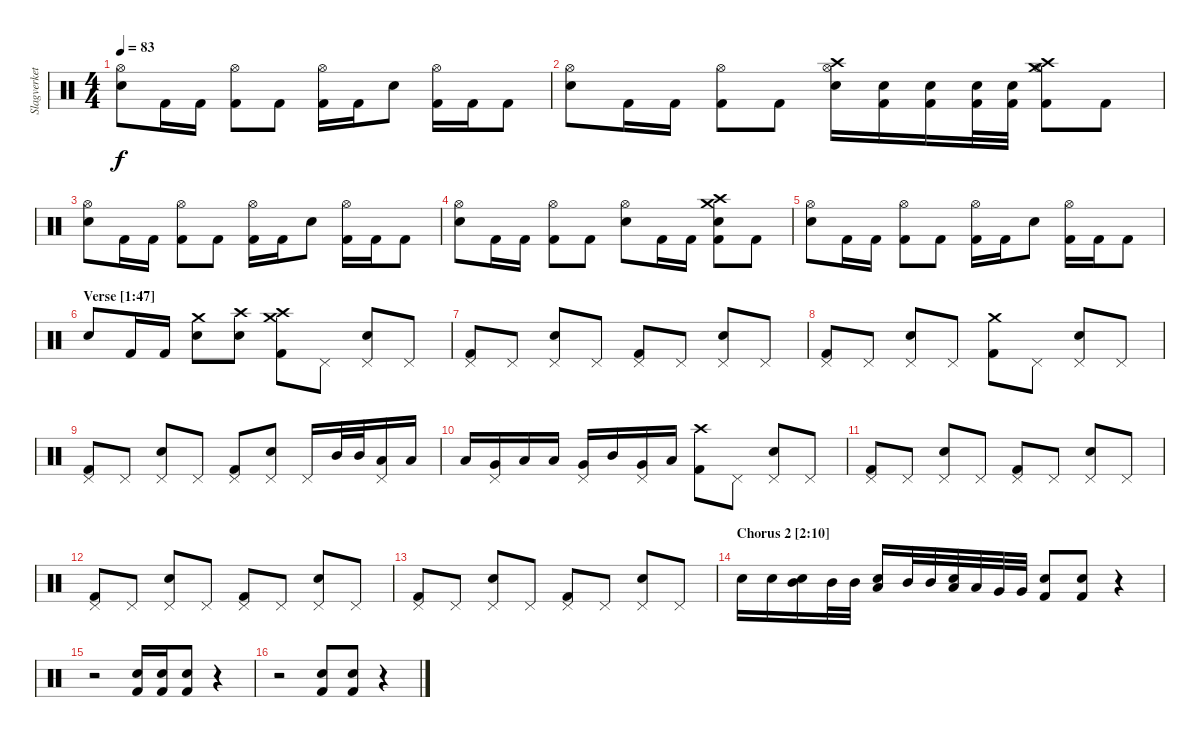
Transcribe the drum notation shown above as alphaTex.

\track ("Slagverket!" "Slagverket") {instrument percussion}
\staff {score}
\articulation defaults
\ts (4 4)
\tempo 83
\clef neutral
\ks c
("Hi-Hat (open)" "Snare (hit) 2").8{dy f} "Kick (hit) 2".16 "Kick (hit) 2".16 ("Hi-Hat (open)" "Kick (hit) 2").8 "Kick (hit) 2".8 ("Hi-Hat (open)" "Kick (hit) 2").16 "Kick (hit) 2".16 "Snare (hit) 2".8 ("Hi-Hat (open)" "Kick (hit) 2").16 "Kick (hit) 2".16 "Kick (hit) 2".8 |
("Hi-Hat (open)" "Snare (hit) 2").8 "Kick (hit) 2".16 "Kick (hit) 2".16 ("Hi-Hat (open)" "Kick (hit) 2").8 "Kick (hit) 2".8 ("Hi-Hat (open)" "Crash high (hit)" "Snare (hit) 2").16 ("Snare (hit) 2" "Kick (hit) 2").16 ("Snare (hit) 2" "Kick (hit) 2").16 ("Snare (hit) 2" "Kick (hit) 2").32 ("Snare (hit) 2" "Kick (hit) 2").32 ("Crash high (hit)" "Crash medium (hit)" "Hi-Hat (open)" "Kick (hit) 2").8 "Kick (hit) 2".8 |
("Hi-Hat (open)" "Snare (hit) 2").8 "Kick (hit) 2".16 "Kick (hit) 2".16 ("Hi-Hat (open)" "Kick (hit) 2").8 "Kick (hit) 2".8 ("Hi-Hat (open)" "Kick (hit) 2").16 "Kick (hit) 2".16 "Snare (hit) 2".8 ("Hi-Hat (open)" "Kick (hit) 2").16 "Kick (hit) 2".16 "Kick (hit) 2".8 |
("Hi-Hat (open)" "Snare (hit) 2").8 "Kick (hit) 2".16 "Kick (hit) 2".16 ("Hi-Hat (open)" "Kick (hit) 2").8 "Kick (hit) 2".8 ("Hi-Hat (open)" "Snare (hit) 2").8 "Kick (hit) 2".16 "Kick (hit) 2".16 ("Crash high (hit)" "Crash medium (hit)" "Snare (hit) 2" "Kick (hit) 2").8 "Kick (hit) 2".8 |
("Hi-Hat (open)" "Snare (hit) 2").8 "Kick (hit) 2".16 "Kick (hit) 2".16 ("Hi-Hat (open)" "Kick (hit) 2").8 "Kick (hit) 2".8 ("Hi-Hat (open)" "Kick (hit) 2").16 "Kick (hit) 2".16 "Snare (hit) 2".8 ("Hi-Hat (open)" "Kick (hit) 2").16 "Kick (hit) 2".16 "Kick (hit) 2".8 |
\section ("" "Verse [1:47]")
"Snare (hit) 2".8 "Kick (hit) 2".16 "Kick (hit) 2".16 ("Crash medium (hit)" "Snare (hit) 2").8 ("Crash high (hit)" "Snare (hit) 2").8 ("Crash high (hit)" "Crash medium (hit)" "Kick (hit) 2").8 "Pedal Hi-Hat (hit)".8 ("Pedal Hi-Hat (hit)" "Snare (hit) 2").8 "Pedal Hi-Hat (hit)".8 |
("Pedal Hi-Hat (hit)" "Kick (hit) 2").8 "Pedal Hi-Hat (hit)".8 ("Pedal Hi-Hat (hit)" "Snare (hit) 2").8 "Pedal Hi-Hat (hit)".8 ("Pedal Hi-Hat (hit)" "Kick (hit) 2").8 "Pedal Hi-Hat (hit)".8 ("Pedal Hi-Hat (hit)" "Snare (hit) 2").8 "Pedal Hi-Hat (hit)".8 |
("Pedal Hi-Hat (hit)" "Kick (hit) 2").8 "Pedal Hi-Hat (hit)".8 ("Pedal Hi-Hat (hit)" "Snare (hit) 2").8 "Pedal Hi-Hat (hit)".8 ("Crash medium (hit)" "Kick (hit) 2").8 "Pedal Hi-Hat (hit)".8 ("Pedal Hi-Hat (hit)" "Snare (hit) 2").8 "Pedal Hi-Hat (hit)".8 |
("Pedal Hi-Hat (hit)" "Kick (hit) 2").8 "Pedal Hi-Hat (hit)".8 ("Pedal Hi-Hat (hit)" "Snare (hit) 2").8 "Pedal Hi-Hat (hit)".8 ("Pedal Hi-Hat (hit)" "Kick (hit) 2").8 ("Pedal Hi-Hat (hit)" "Snare (hit) 2").8 "Pedal Hi-Hat (hit)".16 "Mid Tom (hit)".32 "Mid Tom (hit)".32 ("Pedal Hi-Hat (hit)" "Low Tom (hit)").16 "Low Tom (hit)".16 |
"Low Tom (hit)".16 ("Pedal Hi-Hat (hit)" "Very Low Tom (hit)").16 "Low Tom (hit)".16 "Low Floor Tom (hit)".16 ("Pedal Hi-Hat (hit)" "Very Low Tom (hit)").16 "Mid Tom (hit)".16 ("Pedal Hi-Hat (hit)" "Very Low Tom (hit)").16 "Low Floor Tom (hit)".16 ("Crash high (hit)" "Kick (hit) 2").8 "Pedal Hi-Hat (hit)".8 ("Pedal Hi-Hat (hit)" "Snare (hit) 2").8 "Pedal Hi-Hat (hit)".8 |
("Pedal Hi-Hat (hit)" "Kick (hit) 2").8 "Pedal Hi-Hat (hit)".8 ("Pedal Hi-Hat (hit)" "Snare (hit) 2").8 "Pedal Hi-Hat (hit)".8 ("Pedal Hi-Hat (hit)" "Kick (hit) 2").8 "Pedal Hi-Hat (hit)".8 ("Pedal Hi-Hat (hit)" "Snare (hit) 2").8 "Pedal Hi-Hat (hit)".8 |
("Pedal Hi-Hat (hit)" "Kick (hit) 2").8 "Pedal Hi-Hat (hit)".8 ("Pedal Hi-Hat (hit)" "Snare (hit) 2").8 "Pedal Hi-Hat (hit)".8 ("Pedal Hi-Hat (hit)" "Kick (hit) 2").8 "Pedal Hi-Hat (hit)".8 ("Pedal Hi-Hat (hit)" "Snare (hit) 2").8 "Pedal Hi-Hat (hit)".8 |
("Pedal Hi-Hat (hit)" "Kick (hit) 2").8 "Pedal Hi-Hat (hit)".8 ("Pedal Hi-Hat (hit)" "Snare (hit) 2").8 "Pedal Hi-Hat (hit)".8 ("Pedal Hi-Hat (hit)" "Kick (hit) 2").8 "Pedal Hi-Hat (hit)".8 ("Pedal Hi-Hat (hit)" "Snare (hit) 2").8 "Pedal Hi-Hat (hit)".8 |
\section ("" "Chorus 2 [2:10]")
"Snare (hit) 2".16 "Electric Snare (hit)".16 ("Snare (hit) 2" "Mid Tom (hit)").16 "Mid Tom (hit)".32 "Mid Tom (hit)".32 ("Electric Snare (hit)" "Low Tom (hit)").16 "Mid Tom (hit)".32 "Mid Tom (hit)".32 ("Snare (hit) 2" "Low Tom (hit)").32 "Low Tom (hit)".32 "Very Low Tom (hit)".32 "Very Low Tom (hit)".32 ("Snare (hit) 2" "Kick (hit) 2").8 ("Snare (hit) 2" "Kick (hit) 2").8 r.4 |
r.2 ("Snare (hit) 2" "Kick (hit) 2").16 ("Snare (hit) 2" "Kick (hit) 2").16 ("Snare (hit) 2" "Kick (hit) 2").8 r.4 |
r.2 ("Snare (hit) 2" "Kick (hit) 2").8 ("Snare (hit) 2" "Kick (hit) 2").8 r.4
